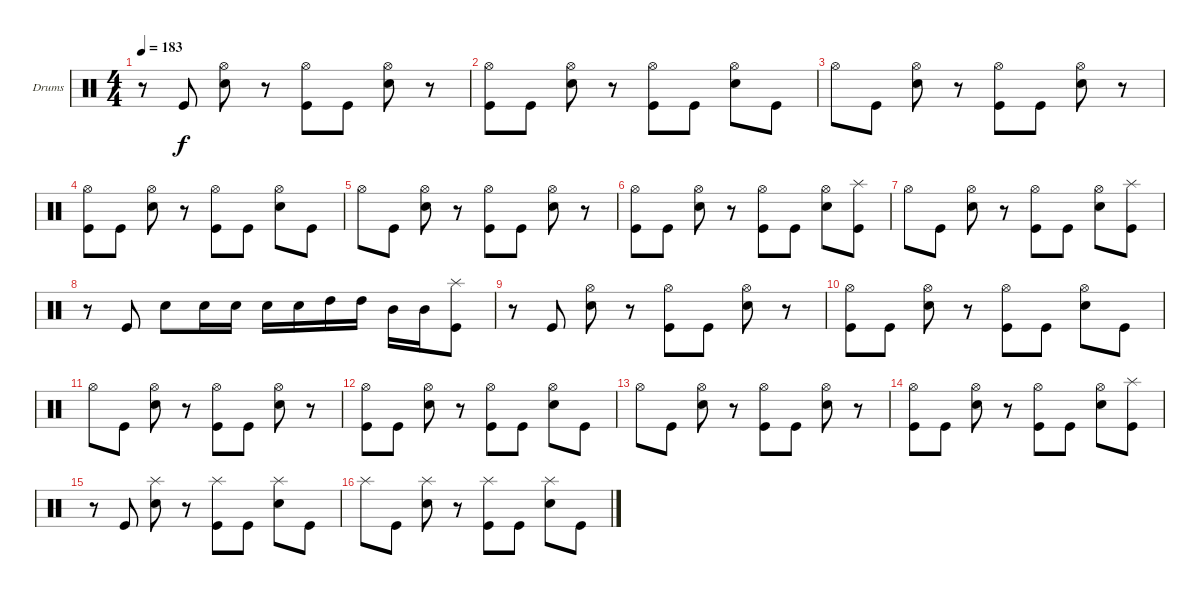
\bracketExtendMode groupsimilarinstruments
\firstSystemTrackNameOrientation horizontal
\otherSystemsTrackNameOrientation horizontal
\track ("Drumkit" "Drums") {instrument percussion}
\staff {score}
\articulation defaults
\ts (4 4)
\tempo 183
\clef neutral
\ks c
r.8{dy f} "Kick (hit)".8 ("Snare (hit) 2" "Hi-Hat (open)").8 r.8 ("Kick (hit)" "Hi-Hat (open)").8 "Kick (hit)".8 ("Snare (hit) 2" "Hi-Hat (open)").8 r.8 |
("Kick (hit)" "Hi-Hat (open)").8 "Kick (hit)".8 ("Snare (hit) 2" "Hi-Hat (open)").8 r.8 ("Kick (hit)" "Hi-Hat (open)").8 "Kick (hit)".8 ("Snare (hit) 2" "Hi-Hat (open)").8 "Kick (hit)".8 |
"Hi-Hat (open)".8 "Kick (hit)".8 ("Snare (hit) 2" "Hi-Hat (open)").8 r.8 ("Kick (hit)" "Hi-Hat (open)").8 "Kick (hit)".8 ("Snare (hit) 2" "Hi-Hat (open)").8 r.8 |
("Kick (hit)" "Hi-Hat (open)").8 "Kick (hit)".8 ("Snare (hit) 2" "Hi-Hat (open)").8 r.8 ("Kick (hit)" "Hi-Hat (open)").8 "Kick (hit)".8 ("Snare (hit) 2" "Hi-Hat (open)").8 "Kick (hit)".8 |
"Hi-Hat (open)".8 "Kick (hit)".8 ("Snare (hit) 2" "Hi-Hat (open)").8 r.8 ("Kick (hit)" "Hi-Hat (open)").8 "Kick (hit)".8 ("Snare (hit) 2" "Hi-Hat (open)").8 r.8 |
("Kick (hit)" "Hi-Hat (open)").8 "Kick (hit)".8 ("Snare (hit) 2" "Hi-Hat (open)").8 r.8 ("Kick (hit)" "Hi-Hat (open)").8 "Kick (hit)".8 ("Snare (hit) 2" "Hi-Hat (open)").8 ("Kick (hit)" "Splash (hit)").8 |
"Hi-Hat (open)".8 "Kick (hit)".8 ("Snare (hit) 2" "Hi-Hat (open)").8 r.8 ("Kick (hit)" "Hi-Hat (open)").8 "Kick (hit)".8 ("Snare (hit) 2" "Hi-Hat (open)").8 ("Kick (hit)" "Splash (hit)").8 |
r.8 "Kick (hit)".8 "Snare (hit) 2".8 "Snare (hit) 2".16 "Snare (hit) 2".16 "Snare (hit) 2".16 "Snare (hit) 2".16 "High Tom (hit)".16 "High Tom (hit)".16 "Mid Tom (hit)".16 "Mid Tom (hit)".16 ("Kick (hit)" "Splash (hit)").8 |
r.8 "Kick (hit)".8 ("Snare (hit) 2" "Hi-Hat (open)").8 r.8 ("Kick (hit)" "Hi-Hat (open)").8 "Kick (hit)".8 ("Snare (hit) 2" "Hi-Hat (open)").8 r.8 |
("Kick (hit)" "Hi-Hat (open)").8 "Kick (hit)".8 ("Snare (hit) 2" "Hi-Hat (open)").8 r.8 ("Kick (hit)" "Hi-Hat (open)").8 "Kick (hit)".8 ("Snare (hit) 2" "Hi-Hat (open)").8 "Kick (hit)".8 |
"Hi-Hat (open)".8 "Kick (hit)".8 ("Snare (hit) 2" "Hi-Hat (open)").8 r.8 ("Kick (hit)" "Hi-Hat (open)").8 "Kick (hit)".8 ("Snare (hit) 2" "Hi-Hat (open)").8 r.8 |
("Kick (hit)" "Hi-Hat (open)").8 "Kick (hit)".8 ("Snare (hit) 2" "Hi-Hat (open)").8 r.8 ("Kick (hit)" "Hi-Hat (open)").8 "Kick (hit)".8 ("Snare (hit) 2" "Hi-Hat (open)").8 "Kick (hit)".8 |
"Hi-Hat (open)".8 "Kick (hit)".8 ("Snare (hit) 2" "Hi-Hat (open)").8 r.8 ("Kick (hit)" "Hi-Hat (open)").8 "Kick (hit)".8 ("Snare (hit) 2" "Hi-Hat (open)").8 r.8 |
("Kick (hit)" "Hi-Hat (open)").8 "Kick (hit)".8 ("Snare (hit) 2" "Hi-Hat (open)").8 r.8 ("Kick (hit)" "Hi-Hat (open)").8 "Kick (hit)".8 ("Snare (hit) 2" "Hi-Hat (open)").8 ("Kick (hit)" "Splash (hit)").8 |
r.8 "Kick (hit)".8 ("Snare (hit) 2" "Splash (hit)").8 r.8 ("Kick (hit)" "Splash (hit)").8 "Kick (hit)".8 ("Snare (hit) 2" "Splash (hit)").8 "Kick (hit)".8 |
"Splash (hit)".8 "Kick (hit)".8 ("Snare (hit) 2" "Splash (hit)").8 r.8 ("Kick (hit)" "Splash (hit)").8 "Kick (hit)".8 ("Snare (hit) 2" "Splash (hit)").8 "Kick (hit)".8
